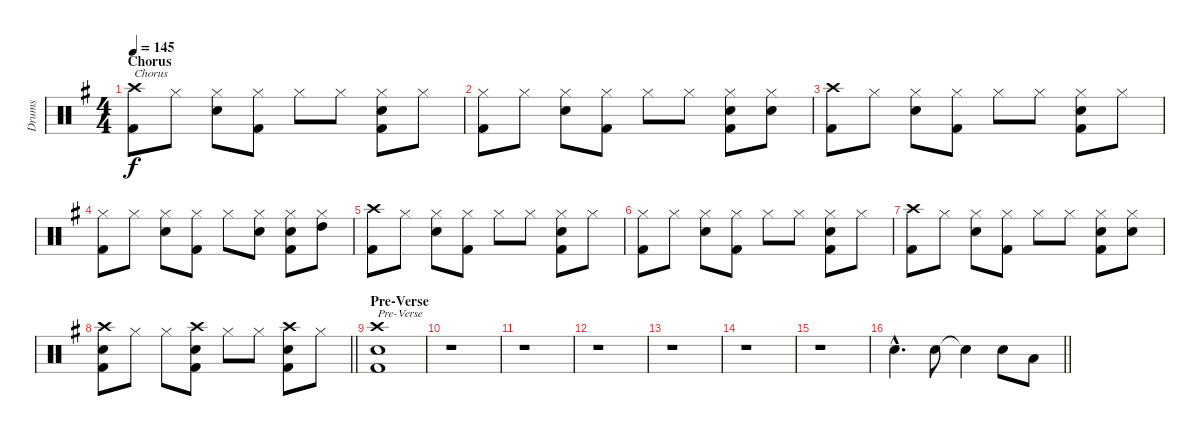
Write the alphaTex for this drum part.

\track ("Drums" "Drums") {instrument percussion}
\staff {score}
\articulation defaults
\ts (4 4)
\section ("" "Chorus")
\tempo 145
\clef neutral
\ks g
("Crash high (hit)" "Kick (hit) 2").8{txt "Chorus" dy f} "Hi-Hat (closed)".8 ("Hi-Hat (closed)" "Electric Snare (hit)").8 ("Hi-Hat (closed)" "Kick (hit) 2").8 "Hi-Hat (closed)".8 "Hi-Hat (closed)".8 ("Hi-Hat (closed)" "Electric Snare (hit)" "Kick (hit) 2").8 "Hi-Hat (closed)".8 |
("Hi-Hat (closed)" "Kick (hit) 2").8 "Hi-Hat (closed)".8 ("Hi-Hat (closed)" "Electric Snare (hit)").8 ("Hi-Hat (closed)" "Kick (hit) 2").8 "Hi-Hat (closed)".8 "Hi-Hat (closed)".8 ("Hi-Hat (closed)" "Electric Snare (hit)" "Kick (hit) 2").8 ("Hi-Hat (closed)" "Electric Snare (hit)").8 |
("Crash high (hit)" "Kick (hit) 2").8 "Hi-Hat (closed)".8 ("Hi-Hat (closed)" "Electric Snare (hit)").8 ("Hi-Hat (closed)" "Kick (hit) 2").8 "Hi-Hat (closed)".8 "Hi-Hat (closed)".8 ("Hi-Hat (closed)" "Electric Snare (hit)" "Kick (hit) 2").8 "Hi-Hat (closed)".8 |
("Hi-Hat (closed)" "Kick (hit) 2").8 "Hi-Hat (closed)".8 ("Hi-Hat (closed)" "Electric Snare (hit)").8 ("Hi-Hat (closed)" "Kick (hit) 2").8 "Hi-Hat (closed)".8 ("Hi-Hat (closed)" "Electric Snare (hit)").8 ("Hi-Hat (closed)" "Electric Snare (hit)" "Kick (hit) 2").8 ("Hi-Hat (closed)" "High Tom (hit)").8 |
("Crash high (hit)" "Kick (hit) 2").8 "Hi-Hat (closed)".8 ("Hi-Hat (closed)" "Electric Snare (hit)").8 ("Hi-Hat (closed)" "Kick (hit) 2").8 "Hi-Hat (closed)".8 "Hi-Hat (closed)".8 ("Hi-Hat (closed)" "Electric Snare (hit)" "Kick (hit) 2").8 "Hi-Hat (closed)".8 |
("Hi-Hat (closed)" "Kick (hit) 2").8 "Hi-Hat (closed)".8 ("Hi-Hat (closed)" "Electric Snare (hit)").8 ("Hi-Hat (closed)" "Kick (hit) 2").8 "Hi-Hat (closed)".8 "Hi-Hat (closed)".8 ("Hi-Hat (closed)" "Electric Snare (hit)" "Kick (hit) 2").8 "Hi-Hat (closed)".8 |
("Crash high (hit)" "Kick (hit) 2").8 "Hi-Hat (closed)".8 ("Hi-Hat (closed)" "Electric Snare (hit)").8 ("Hi-Hat (closed)" "Kick (hit) 2").8 "Hi-Hat (closed)".8 "Hi-Hat (closed)".8 ("Hi-Hat (closed)" "Electric Snare (hit)" "Kick (hit) 2").8 ("Hi-Hat (closed)" "Electric Snare (hit)").8 |
\barLineRight lightlight
("Crash high (hit)" "Electric Snare (hit)" "Kick (hit) 2").8 "Hi-Hat (closed)".8 "Hi-Hat (closed)".8 ("Crash high (hit)" "Electric Snare (hit)" "Kick (hit) 2").8 "Hi-Hat (closed)".8 "Hi-Hat (closed)".8 ("Crash high (hit)" "Electric Snare (hit)" "Kick (hit) 2").8 "Hi-Hat (closed)".8 |
\section ("" "Pre-Verse")
("Crash high (hit)" "Electric Snare (hit)" "Kick (hit) 2").1{txt "Pre-Verse"} |
r.1 |
r.1 |
r.1 |
r.1 |
r.1 |
r.1 |
\barLineRight lightlight "Electric Snare (hit)"{hac}.4{d} "Electric Snare (hit)".8 "Snare (hit)"{t}.4 "Electric Snare (hit)".8 "Low Tom (hit)".8
